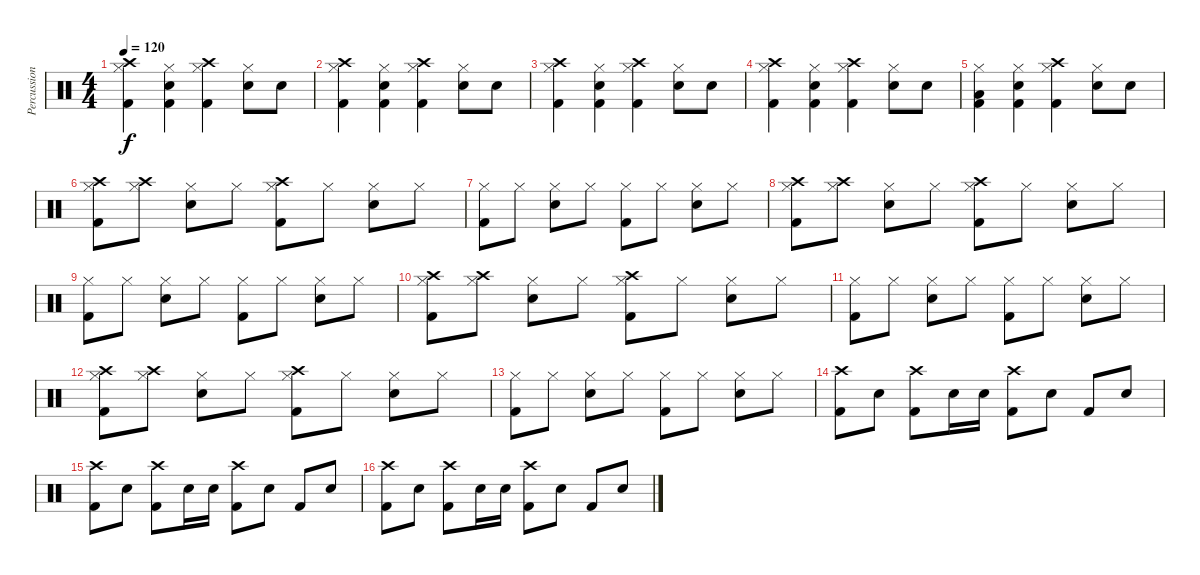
\track ("Percussion" "Percussion") {instrument percussion}
\staff {score}
\articulation defaults
\ts (4 4)
\tempo 120
\clef neutral
\ks c
("Crash high (hit)" "Hi-Hat (closed)" "Kick (hit) 2").4{dy f} ("Hi-Hat (closed)" "Snare (hit) 2" "Kick (hit) 2").4 ("Crash high (hit)" "Hi-Hat (closed)" "Kick (hit) 2").4 ("Hi-Hat (closed)" "Snare (hit) 2").8 "Snare (hit) 2".8 |
("Crash high (hit)" "Hi-Hat (closed)" "Kick (hit) 2").4 ("Hi-Hat (closed)" "Snare (hit) 2" "Kick (hit) 2").4 ("Crash high (hit)" "Hi-Hat (closed)" "Kick (hit) 2").4 ("Hi-Hat (closed)" "Snare (hit) 2").8 "Snare (hit) 2".8 |
("Crash high (hit)" "Hi-Hat (closed)" "Kick (hit) 2").4 ("Hi-Hat (closed)" "Snare (hit) 2" "Kick (hit) 2").4 ("Crash high (hit)" "Hi-Hat (closed)" "Kick (hit) 2").4 ("Hi-Hat (closed)" "Snare (hit) 2").8 "Snare (hit) 2".8 |
("Crash high (hit)" "Hi-Hat (closed)" "Kick (hit) 2").4 ("Hi-Hat (closed)" "Snare (hit) 2" "Kick (hit) 2").4 ("Crash high (hit)" "Hi-Hat (closed)" "Kick (hit) 2").4 ("Hi-Hat (closed)" "Snare (hit) 2").8 "Snare (hit) 2".8 |
("Low Tom (hit)" "Hi-Hat (closed)" "Kick (hit) 2").4 ("Hi-Hat (closed)" "Snare (hit) 2" "Kick (hit) 2").4 ("Crash high (hit)" "Hi-Hat (closed)" "Kick (hit) 2").4 ("Hi-Hat (closed)" "Snare (hit) 2").8 "Snare (hit) 2".8 |
("Crash high (hit)" "Hi-Hat (closed)" "Kick (hit) 2").8 ("Crash high (hit)" "Hi-Hat (closed)").8 ("Hi-Hat (closed)" "Snare (hit) 2").8 "Hi-Hat (closed)".8 ("Crash high (hit)" "Hi-Hat (closed)" "Kick (hit) 2").8 "Hi-Hat (closed)".8 ("Hi-Hat (closed)" "Snare (hit) 2").8 "Hi-Hat (closed)".8 |
("Hi-Hat (closed)" "Kick (hit) 2").8 "Hi-Hat (closed)".8 ("Hi-Hat (closed)" "Snare (hit) 2").8 "Hi-Hat (closed)".8 ("Hi-Hat (closed)" "Kick (hit) 2").8 "Hi-Hat (closed)".8 ("Hi-Hat (closed)" "Snare (hit) 2").8 "Hi-Hat (closed)".8 |
("Crash high (hit)" "Hi-Hat (closed)" "Kick (hit) 2").8 ("Crash high (hit)" "Hi-Hat (closed)").8 ("Hi-Hat (closed)" "Snare (hit) 2").8 "Hi-Hat (closed)".8 ("Crash high (hit)" "Hi-Hat (closed)" "Kick (hit) 2").8 "Hi-Hat (closed)".8 ("Hi-Hat (closed)" "Snare (hit) 2").8 "Hi-Hat (closed)".8 |
("Hi-Hat (closed)" "Kick (hit) 2").8 "Hi-Hat (closed)".8 ("Hi-Hat (closed)" "Snare (hit) 2").8 "Hi-Hat (closed)".8 ("Hi-Hat (closed)" "Kick (hit) 2").8 "Hi-Hat (closed)".8 ("Hi-Hat (closed)" "Snare (hit) 2").8 "Hi-Hat (closed)".8 |
("Crash high (hit)" "Hi-Hat (closed)" "Kick (hit) 2").8 ("Crash high (hit)" "Hi-Hat (closed)").8 ("Hi-Hat (closed)" "Snare (hit) 2").8 "Hi-Hat (closed)".8 ("Crash high (hit)" "Hi-Hat (closed)" "Kick (hit) 2").8 "Hi-Hat (closed)".8 ("Hi-Hat (closed)" "Snare (hit) 2").8 "Hi-Hat (closed)".8 |
("Hi-Hat (closed)" "Kick (hit) 2").8 "Hi-Hat (closed)".8 ("Hi-Hat (closed)" "Snare (hit) 2").8 "Hi-Hat (closed)".8 ("Hi-Hat (closed)" "Kick (hit) 2").8 "Hi-Hat (closed)".8 ("Hi-Hat (closed)" "Snare (hit) 2").8 "Hi-Hat (closed)".8 |
("Crash high (hit)" "Hi-Hat (closed)" "Kick (hit) 2").8 ("Crash high (hit)" "Hi-Hat (closed)").8 ("Hi-Hat (closed)" "Snare (hit) 2").8 "Hi-Hat (closed)".8 ("Crash high (hit)" "Hi-Hat (closed)" "Kick (hit) 2").8 "Hi-Hat (closed)".8 ("Hi-Hat (closed)" "Snare (hit) 2").8 "Hi-Hat (closed)".8 |
("Hi-Hat (closed)" "Kick (hit) 2").8 "Hi-Hat (closed)".8 ("Hi-Hat (closed)" "Snare (hit) 2").8 "Hi-Hat (closed)".8 ("Hi-Hat (closed)" "Kick (hit) 2").8 "Hi-Hat (closed)".8 ("Hi-Hat (closed)" "Snare (hit) 2").8 "Hi-Hat (closed)".8 |
("Crash high (hit)" "Kick (hit) 2").8 "Snare (hit) 2".8 ("Crash high (hit)" "Kick (hit) 2").8 "Snare (hit) 2".16 "Snare (hit) 2".16 ("Crash high (hit)" "Kick (hit) 2").8 "Snare (hit) 2".8 "Kick (hit) 2".8 "Snare (hit) 2".8 |
("Crash high (hit)" "Kick (hit) 2").8 "Snare (hit) 2".8 ("Crash high (hit)" "Kick (hit) 2").8 "Snare (hit) 2".16 "Snare (hit) 2".16 ("Crash high (hit)" "Kick (hit) 2").8 "Snare (hit) 2".8 "Kick (hit) 2".8 "Snare (hit) 2".8 |
("Crash high (hit)" "Kick (hit) 2").8 "Snare (hit) 2".8 ("Crash high (hit)" "Kick (hit) 2").8 "Snare (hit) 2".16 "Snare (hit) 2".16 ("Crash high (hit)" "Kick (hit) 2").8 "Snare (hit) 2".8 "Kick (hit) 2".8 "Snare (hit) 2".8
